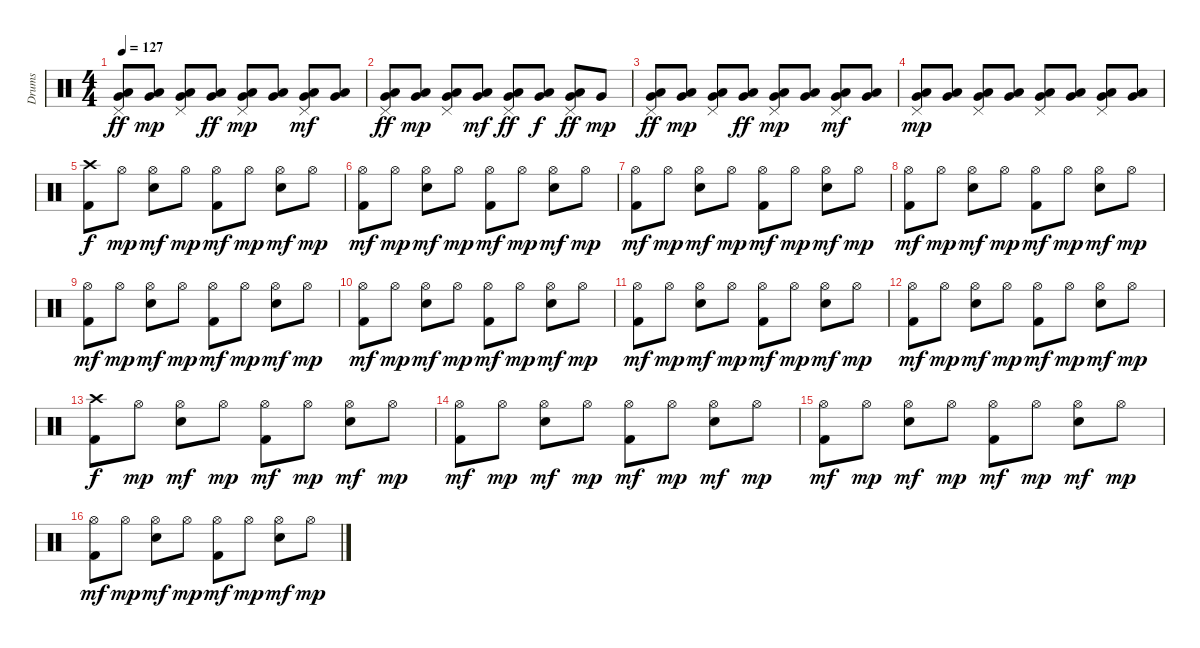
\track ("Drums" "Drums") {instrument percussion}
\staff {score}
\articulation defaults
\ts (4 4)
\tempo 127
\clef neutral
\ks c
("Pedal Hi-Hat (hit)" "Very Low Tom (hit)" "Low Floor Tom (hit)").8{dy ff} ("Very Low Tom (hit)" "Low Floor Tom (hit)").8{dy mp} ("Pedal Hi-Hat (hit)" "Very Low Tom (hit)" "Low Floor Tom (hit)").8 ("Very Low Tom (hit)" "Low Floor Tom (hit)").8{dy ff} ("Pedal Hi-Hat (hit)" "Very Low Tom (hit)" "Low Floor Tom (hit)").8{dy mp} ("Very Low Tom (hit)" "Low Floor Tom (hit)").8 ("Pedal Hi-Hat (hit)" "Very Low Tom (hit)" "Low Floor Tom (hit)").8{dy mf} ("Very Low Tom (hit)" "Low Floor Tom (hit)").8 |
("Pedal Hi-Hat (hit)" "Very Low Tom (hit)" "Low Floor Tom (hit)").8{dy ff} ("Very Low Tom (hit)" "Low Floor Tom (hit)").8{dy mp} ("Pedal Hi-Hat (hit)" "Very Low Tom (hit)" "Low Floor Tom (hit)").8 ("Very Low Tom (hit)" "Low Floor Tom (hit)").8{dy mf} ("Pedal Hi-Hat (hit)" "Very Low Tom (hit)" "Low Floor Tom (hit)").8{dy ff} ("Very Low Tom (hit)" "Low Floor Tom (hit)").8{dy f} ("Pedal Hi-Hat (hit)" "Very Low Tom (hit)" "Low Floor Tom (hit)").8{dy ff} "Very Low Tom (hit)".8{dy mp} |
("Pedal Hi-Hat (hit)" "Very Low Tom (hit)" "Low Floor Tom (hit)").8{dy ff} ("Very Low Tom (hit)" "Low Floor Tom (hit)").8{dy mp} ("Pedal Hi-Hat (hit)" "Very Low Tom (hit)" "Low Floor Tom (hit)").8 ("Very Low Tom (hit)" "Low Floor Tom (hit)").8{dy ff} ("Pedal Hi-Hat (hit)" "Very Low Tom (hit)" "Low Floor Tom (hit)").8{dy mp} ("Very Low Tom (hit)" "Low Floor Tom (hit)").8 ("Pedal Hi-Hat (hit)" "Very Low Tom (hit)" "Low Floor Tom (hit)").8{dy mf} ("Very Low Tom (hit)" "Low Floor Tom (hit)").8 |
("Pedal Hi-Hat (hit)" "Very Low Tom (hit)" "Low Floor Tom (hit)").8{dy mp} ("Very Low Tom (hit)" "Low Floor Tom (hit)").8 ("Pedal Hi-Hat (hit)" "Very Low Tom (hit)" "Low Floor Tom (hit)").8 ("Very Low Tom (hit)" "Low Floor Tom (hit)").8 ("Pedal Hi-Hat (hit)" "Very Low Tom (hit)" "Low Floor Tom (hit)").8 ("Very Low Tom (hit)" "Low Floor Tom (hit)").8 ("Pedal Hi-Hat (hit)" "Very Low Tom (hit)" "Low Floor Tom (hit)").8 ("Very Low Tom (hit)" "Low Floor Tom (hit)").8 |
("Crash high (hit)" "Kick (hit) 2").8{dy f} "Hi-Hat (open)".8{dy mp} ("Hi-Hat (open)" "Electric Snare (hit)").8{dy mf} "Hi-Hat (open)".8{dy mp} ("Hi-Hat (open)" "Kick (hit) 2").8{dy mf} "Hi-Hat (open)".8{dy mp} ("Hi-Hat (open)" "Electric Snare (hit)").8{dy mf} "Hi-Hat (open)".8{dy mp} |
("Hi-Hat (open)" "Kick (hit) 2").8{dy mf} "Hi-Hat (open)".8{dy mp} ("Hi-Hat (open)" "Electric Snare (hit)").8{dy mf} "Hi-Hat (open)".8{dy mp} ("Hi-Hat (open)" "Kick (hit) 2").8{dy mf} "Hi-Hat (open)".8{dy mp} ("Hi-Hat (open)" "Electric Snare (hit)").8{dy mf} "Hi-Hat (open)".8{dy mp} |
("Hi-Hat (open)" "Kick (hit) 2").8{dy mf} "Hi-Hat (open)".8{dy mp} ("Hi-Hat (open)" "Electric Snare (hit)").8{dy mf} "Hi-Hat (open)".8{dy mp} ("Hi-Hat (open)" "Kick (hit) 2").8{dy mf} "Hi-Hat (open)".8{dy mp} ("Hi-Hat (open)" "Electric Snare (hit)").8{dy mf} "Hi-Hat (open)".8{dy mp} |
("Hi-Hat (open)" "Kick (hit) 2").8{dy mf} "Hi-Hat (open)".8{dy mp} ("Hi-Hat (open)" "Electric Snare (hit)").8{dy mf} "Hi-Hat (open)".8{dy mp} ("Hi-Hat (open)" "Kick (hit) 2").8{dy mf} "Hi-Hat (open)".8{dy mp} ("Hi-Hat (open)" "Electric Snare (hit)").8{dy mf} "Hi-Hat (open)".8{dy mp} |
("Hi-Hat (open)" "Kick (hit) 2").8{dy mf} "Hi-Hat (open)".8{dy mp} ("Hi-Hat (open)" "Electric Snare (hit)").8{dy mf} "Hi-Hat (open)".8{dy mp} ("Hi-Hat (open)" "Kick (hit) 2").8{dy mf} "Hi-Hat (open)".8{dy mp} ("Hi-Hat (open)" "Electric Snare (hit)").8{dy mf} "Hi-Hat (open)".8{dy mp} |
("Hi-Hat (open)" "Kick (hit) 2").8{dy mf} "Hi-Hat (open)".8{dy mp} ("Hi-Hat (open)" "Electric Snare (hit)").8{dy mf} "Hi-Hat (open)".8{dy mp} ("Hi-Hat (open)" "Kick (hit) 2").8{dy mf} "Hi-Hat (open)".8{dy mp} ("Hi-Hat (open)" "Electric Snare (hit)").8{dy mf} "Hi-Hat (open)".8{dy mp} |
("Hi-Hat (open)" "Kick (hit) 2").8{dy mf} "Hi-Hat (open)".8{dy mp} ("Hi-Hat (open)" "Electric Snare (hit)").8{dy mf} "Hi-Hat (open)".8{dy mp} ("Hi-Hat (open)" "Kick (hit) 2").8{dy mf} "Hi-Hat (open)".8{dy mp} ("Hi-Hat (open)" "Electric Snare (hit)").8{dy mf} "Hi-Hat (open)".8{dy mp} |
("Hi-Hat (open)" "Kick (hit) 2").8{dy mf} "Hi-Hat (open)".8{dy mp} ("Hi-Hat (open)" "Electric Snare (hit)").8{dy mf} "Hi-Hat (open)".8{dy mp} ("Hi-Hat (open)" "Kick (hit) 2").8{dy mf} "Hi-Hat (open)".8{dy mp} ("Hi-Hat (open)" "Electric Snare (hit)").8{dy mf} "Hi-Hat (open)".8{dy mp} |
("Crash high (hit)" "Kick (hit) 2").8{dy f} "Hi-Hat (open)".8{dy mp} ("Hi-Hat (open)" "Electric Snare (hit)").8{dy mf} "Hi-Hat (open)".8{dy mp} ("Hi-Hat (open)" "Kick (hit) 2").8{dy mf} "Hi-Hat (open)".8{dy mp} ("Hi-Hat (open)" "Electric Snare (hit)").8{dy mf} "Hi-Hat (open)".8{dy mp} |
("Hi-Hat (open)" "Kick (hit) 2").8{dy mf} "Hi-Hat (open)".8{dy mp} ("Hi-Hat (open)" "Electric Snare (hit)").8{dy mf} "Hi-Hat (open)".8{dy mp} ("Hi-Hat (open)" "Kick (hit) 2").8{dy mf} "Hi-Hat (open)".8{dy mp} ("Hi-Hat (open)" "Electric Snare (hit)").8{dy mf} "Hi-Hat (open)".8{dy mp} |
("Hi-Hat (open)" "Kick (hit) 2").8{dy mf} "Hi-Hat (open)".8{dy mp} ("Hi-Hat (open)" "Electric Snare (hit)").8{dy mf} "Hi-Hat (open)".8{dy mp} ("Hi-Hat (open)" "Kick (hit) 2").8{dy mf} "Hi-Hat (open)".8{dy mp} ("Hi-Hat (open)" "Electric Snare (hit)").8{dy mf} "Hi-Hat (open)".8{dy mp} |
("Hi-Hat (open)" "Kick (hit) 2").8{dy mf} "Hi-Hat (open)".8{dy mp} ("Hi-Hat (open)" "Electric Snare (hit)").8{dy mf} "Hi-Hat (open)".8{dy mp} ("Hi-Hat (open)" "Kick (hit) 2").8{dy mf} "Hi-Hat (open)".8{dy mp} ("Hi-Hat (open)" "Electric Snare (hit)").8{dy mf} "Hi-Hat (open)".8{dy mp}
